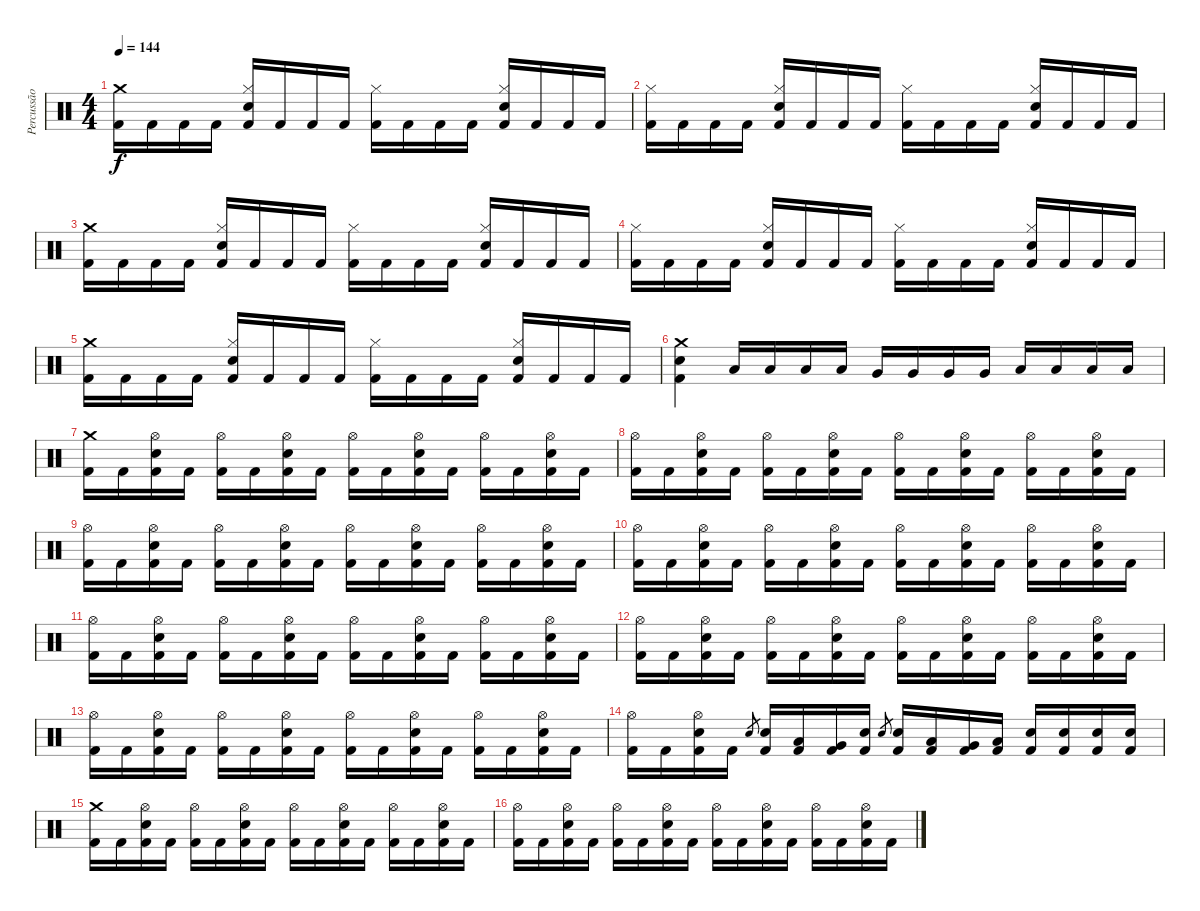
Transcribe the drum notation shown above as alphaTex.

\track ("Percussão" "Percussão") {instrument percussion}
\staff {score}
\articulation defaults
\ts (4 4)
\tempo 144
\clef neutral
\ks c
("Crash medium (hit)" "Kick (hit) 2").16{dy f} "Kick (hit) 2".16 "Kick (hit) 2".16 "Kick (hit) 2".16 ("Hi-Hat (closed)" "Electric Snare (hit)" "Kick (hit) 2").16 "Kick (hit) 2".16 "Kick (hit) 2".16 "Kick (hit) 2".16 ("Hi-Hat (closed)" "Kick (hit) 2").16 "Kick (hit) 2".16 "Kick (hit) 2".16 "Kick (hit) 2".16 ("Hi-Hat (closed)" "Electric Snare (hit)" "Kick (hit) 2").16 "Kick (hit) 2".16 "Kick (hit) 2".16 "Kick (hit) 2".16 |
("Hi-Hat (closed)" "Kick (hit) 2").16 "Kick (hit) 2".16 "Kick (hit) 2".16 "Kick (hit) 2".16 ("Hi-Hat (closed)" "Electric Snare (hit)" "Kick (hit) 2").16 "Kick (hit) 2".16 "Kick (hit) 2".16 "Kick (hit) 2".16 ("Hi-Hat (closed)" "Kick (hit) 2").16 "Kick (hit) 2".16 "Kick (hit) 2".16 "Kick (hit) 2".16 ("Hi-Hat (closed)" "Electric Snare (hit)" "Kick (hit) 2").16 "Kick (hit) 2".16 "Kick (hit) 2".16 "Kick (hit) 2".16 |
("Crash medium (hit)" "Kick (hit) 2").16 "Kick (hit) 2".16 "Kick (hit) 2".16 "Kick (hit) 2".16 ("Hi-Hat (closed)" "Electric Snare (hit)" "Kick (hit) 2").16 "Kick (hit) 2".16 "Kick (hit) 2".16 "Kick (hit) 2".16 ("Hi-Hat (closed)" "Kick (hit) 2").16 "Kick (hit) 2".16 "Kick (hit) 2".16 "Kick (hit) 2".16 ("Hi-Hat (closed)" "Electric Snare (hit)" "Kick (hit) 2").16 "Kick (hit) 2".16 "Kick (hit) 2".16 "Kick (hit) 2".16 |
("Hi-Hat (closed)" "Kick (hit) 2").16 "Kick (hit) 2".16 "Kick (hit) 2".16 "Kick (hit) 2".16 ("Hi-Hat (closed)" "Electric Snare (hit)" "Kick (hit) 2").16 "Kick (hit) 2".16 "Kick (hit) 2".16 "Kick (hit) 2".16 ("Hi-Hat (closed)" "Kick (hit) 2").16 "Kick (hit) 2".16 "Kick (hit) 2".16 "Kick (hit) 2".16 ("Hi-Hat (closed)" "Electric Snare (hit)" "Kick (hit) 2").16 "Kick (hit) 2".16 "Kick (hit) 2".16 "Kick (hit) 2".16 |
("Crash medium (hit)" "Kick (hit) 2").16 "Kick (hit) 2".16 "Kick (hit) 2".16 "Kick (hit) 2".16 ("Hi-Hat (closed)" "Electric Snare (hit)" "Kick (hit) 2").16 "Kick (hit) 2".16 "Kick (hit) 2".16 "Kick (hit) 2".16 ("Hi-Hat (closed)" "Kick (hit) 2").16 "Kick (hit) 2".16 "Kick (hit) 2".16 "Kick (hit) 2".16 ("Hi-Hat (closed)" "Electric Snare (hit)" "Kick (hit) 2").16 "Kick (hit) 2".16 "Kick (hit) 2".16 "Kick (hit) 2".16 |
("Crash medium (hit)" "Electric Snare (hit)" "Kick (hit) 2").4 "Low Tom (hit)".16 "Low Tom (hit)".16 "Low Tom (hit)".16 "Low Tom (hit)".16 "Very Low Tom (hit)".16 "Very Low Tom (hit)".16 "Very Low Tom (hit)".16 "Very Low Tom (hit)".16 "Low Floor Tom (hit)".16 "Low Floor Tom (hit)".16 "Low Floor Tom (hit)".16 "Low Floor Tom (hit)".16 |
("Crash medium (hit)" "Kick (hit) 2").16 "Kick (hit) 2".16 ("Hi-Hat (open)" "Electric Snare (hit)" "Kick (hit) 2").16 "Kick (hit) 2".16 ("Hi-Hat (open)" "Kick (hit) 2").16 "Kick (hit) 2".16 ("Hi-Hat (open)" "Electric Snare (hit)" "Kick (hit) 2").16 "Kick (hit) 2".16 ("Hi-Hat (open)" "Kick (hit) 2").16 "Kick (hit) 2".16 ("Hi-Hat (open)" "Electric Snare (hit)" "Kick (hit) 2").16 "Kick (hit) 2".16 ("Hi-Hat (open)" "Kick (hit) 2").16 "Kick (hit) 2".16 ("Hi-Hat (open)" "Electric Snare (hit)" "Kick (hit) 2").16 "Kick (hit) 2".16 |
("Hi-Hat (open)" "Kick (hit) 2").16 "Kick (hit) 2".16 ("Hi-Hat (open)" "Electric Snare (hit)" "Kick (hit) 2").16 "Kick (hit) 2".16 ("Hi-Hat (open)" "Kick (hit) 2").16 "Kick (hit) 2".16 ("Hi-Hat (open)" "Electric Snare (hit)" "Kick (hit) 2").16 "Kick (hit) 2".16 ("Hi-Hat (open)" "Kick (hit) 2").16 "Kick (hit) 2".16 ("Hi-Hat (open)" "Electric Snare (hit)" "Kick (hit) 2").16 "Kick (hit) 2".16 ("Hi-Hat (open)" "Kick (hit) 2").16 "Kick (hit) 2".16 ("Hi-Hat (open)" "Electric Snare (hit)" "Kick (hit) 2").16 "Kick (hit) 2".16 |
("Hi-Hat (open)" "Kick (hit) 2").16 "Kick (hit) 2".16 ("Hi-Hat (open)" "Electric Snare (hit)" "Kick (hit) 2").16 "Kick (hit) 2".16 ("Hi-Hat (open)" "Kick (hit) 2").16 "Kick (hit) 2".16 ("Hi-Hat (open)" "Electric Snare (hit)" "Kick (hit) 2").16 "Kick (hit) 2".16 ("Hi-Hat (open)" "Kick (hit) 2").16 "Kick (hit) 2".16 ("Hi-Hat (open)" "Electric Snare (hit)" "Kick (hit) 2").16 "Kick (hit) 2".16 ("Hi-Hat (open)" "Kick (hit) 2").16 "Kick (hit) 2".16 ("Hi-Hat (open)" "Electric Snare (hit)" "Kick (hit) 2").16 "Kick (hit) 2".16 |
("Hi-Hat (open)" "Kick (hit) 2").16 "Kick (hit) 2".16 ("Hi-Hat (open)" "Electric Snare (hit)" "Kick (hit) 2").16 "Kick (hit) 2".16 ("Hi-Hat (open)" "Kick (hit) 2").16 "Kick (hit) 2".16 ("Hi-Hat (open)" "Electric Snare (hit)" "Kick (hit) 2").16 "Kick (hit) 2".16 ("Hi-Hat (open)" "Kick (hit) 2").16 "Kick (hit) 2".16 ("Hi-Hat (open)" "Electric Snare (hit)" "Kick (hit) 2").16 "Kick (hit) 2".16 ("Hi-Hat (open)" "Kick (hit) 2").16 "Kick (hit) 2".16 ("Hi-Hat (open)" "Electric Snare (hit)" "Kick (hit) 2").16 "Kick (hit) 2".16 |
("Hi-Hat (open)" "Kick (hit) 2").16 "Kick (hit) 2".16 ("Hi-Hat (open)" "Electric Snare (hit)" "Kick (hit) 2").16 "Kick (hit) 2".16 ("Hi-Hat (open)" "Kick (hit) 2").16 "Kick (hit) 2".16 ("Hi-Hat (open)" "Electric Snare (hit)" "Kick (hit) 2").16 "Kick (hit) 2".16 ("Hi-Hat (open)" "Kick (hit) 2").16 "Kick (hit) 2".16 ("Hi-Hat (open)" "Electric Snare (hit)" "Kick (hit) 2").16 "Kick (hit) 2".16 ("Hi-Hat (open)" "Kick (hit) 2").16 "Kick (hit) 2".16 ("Hi-Hat (open)" "Electric Snare (hit)" "Kick (hit) 2").16 "Kick (hit) 2".16 |
("Hi-Hat (open)" "Kick (hit) 2").16 "Kick (hit) 2".16 ("Hi-Hat (open)" "Electric Snare (hit)" "Kick (hit) 2").16 "Kick (hit) 2".16 ("Hi-Hat (open)" "Kick (hit) 2").16 "Kick (hit) 2".16 ("Hi-Hat (open)" "Electric Snare (hit)" "Kick (hit) 2").16 "Kick (hit) 2".16 ("Hi-Hat (open)" "Kick (hit) 2").16 "Kick (hit) 2".16 ("Hi-Hat (open)" "Electric Snare (hit)" "Kick (hit) 2").16 "Kick (hit) 2".16 ("Hi-Hat (open)" "Kick (hit) 2").16 "Kick (hit) 2".16 ("Hi-Hat (open)" "Electric Snare (hit)" "Kick (hit) 2").16 "Kick (hit) 2".16 |
("Hi-Hat (open)" "Kick (hit) 2").16 "Kick (hit) 2".16 ("Hi-Hat (open)" "Electric Snare (hit)" "Kick (hit) 2").16 "Kick (hit) 2".16 ("Hi-Hat (open)" "Kick (hit) 2").16 "Kick (hit) 2".16 ("Hi-Hat (open)" "Electric Snare (hit)" "Kick (hit) 2").16 "Kick (hit) 2".16 ("Hi-Hat (open)" "Kick (hit) 2").16 "Kick (hit) 2".16 ("Hi-Hat (open)" "Electric Snare (hit)" "Kick (hit) 2").16 "Kick (hit) 2".16 ("Hi-Hat (open)" "Kick (hit) 2").16 "Kick (hit) 2".16 ("Hi-Hat (open)" "Electric Snare (hit)" "Kick (hit) 2").16 "Kick (hit) 2".16 |
("Hi-Hat (open)" "Kick (hit) 2").16 "Kick (hit) 2".16 ("Hi-Hat (open)" "Electric Snare (hit)" "Kick (hit) 2").16 "Kick (hit) 2".16 "Electric Snare (hit)".8{gr} ("Electric Snare (hit)" "Kick (hit) 2").16 ("Low Tom (hit)" "Kick (hit) 2").16 ("Very Low Tom (hit)" "Kick (hit) 2").16 ("Snare (hit)" "Kick (hit) 2").16 "Electric Snare (hit)".8{gr} ("Electric Snare (hit)" "Kick (hit) 2").16 ("Low Tom (hit)" "Kick (hit) 2").16 ("Very Low Tom (hit)" "Kick (hit) 2").16 ("Low Floor Tom (hit)" "Kick (hit) 2").16 ("Electric Snare (hit)" "Kick (hit) 2").16 ("Electric Snare (hit)" "Kick (hit) 2").16 ("Electric Snare (hit)" "Kick (hit) 2").16 ("Electric Snare (hit)" "Kick (hit) 2").16 |
("Crash medium (hit)" "Kick (hit) 2").16 "Kick (hit) 2".16 ("Hi-Hat (open)" "Electric Snare (hit)" "Kick (hit) 2").16 "Kick (hit) 2".16 ("Hi-Hat (open)" "Kick (hit) 2").16 "Kick (hit) 2".16 ("Hi-Hat (open)" "Electric Snare (hit)" "Kick (hit) 2").16 "Kick (hit) 2".16 ("Hi-Hat (open)" "Kick (hit) 2").16 "Kick (hit) 2".16 ("Hi-Hat (open)" "Electric Snare (hit)" "Kick (hit) 2").16 "Kick (hit) 2".16 ("Hi-Hat (open)" "Kick (hit) 2").16 "Kick (hit) 2".16 ("Hi-Hat (open)" "Electric Snare (hit)" "Kick (hit) 2").16 "Kick (hit) 2".16 |
("Hi-Hat (open)" "Kick (hit) 2").16 "Kick (hit) 2".16 ("Hi-Hat (open)" "Electric Snare (hit)" "Kick (hit) 2").16 "Kick (hit) 2".16 ("Hi-Hat (open)" "Kick (hit) 2").16 "Kick (hit) 2".16 ("Hi-Hat (open)" "Electric Snare (hit)" "Kick (hit) 2").16 "Kick (hit) 2".16 ("Hi-Hat (open)" "Kick (hit) 2").16 "Kick (hit) 2".16 ("Hi-Hat (open)" "Electric Snare (hit)" "Kick (hit) 2").16 "Kick (hit) 2".16 ("Hi-Hat (open)" "Kick (hit) 2").16 "Kick (hit) 2".16 ("Hi-Hat (open)" "Electric Snare (hit)" "Kick (hit) 2").16 "Kick (hit) 2".16
